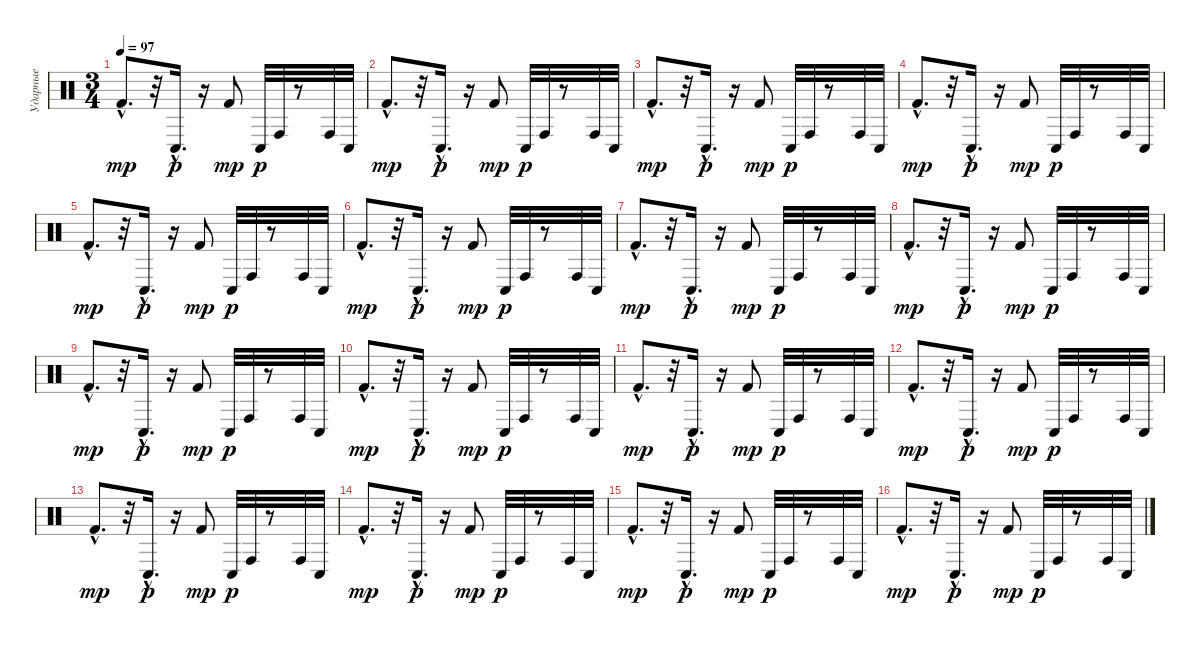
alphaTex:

\track ("Ударные" "Ударные") {instrument percussion}
\staff {score}
\articulation defaults
\ts (3 4)
\tempo 97
\clef neutral
\ks c "Kick (hit) 2"{hac}.8{d dy mp}
r.32 "Conga low (hit)"{hac}.16{d dy p} r.16 "Kick (hit) 2".8{dy mp} "Conga low (hit)".32{dy p} "Conga high (hit)".32 r.8 "Conga high (hit)".32 "Conga low (hit)".32 |
"Kick (hit) 2"{hac}.8{d dy mp} r.32 "Conga low (hit)"{hac}.16{d dy p} r.16 "Kick (hit) 2".8{dy mp} "Conga low (hit)".32{dy p} "Conga high (hit)".32 r.8 "Conga high (hit)".32 "Conga low (hit)".32 |
"Kick (hit) 2"{hac}.8{d dy mp} r.32 "Conga low (hit)"{hac}.16{d dy p} r.16 "Kick (hit) 2".8{dy mp} "Conga low (hit)".32{dy p} "Conga high (hit)".32 r.8 "Conga high (hit)".32 "Conga low (hit)".32 |
"Kick (hit) 2"{hac}.8{d dy mp} r.32 "Conga low (hit)"{hac}.16{d dy p} r.16 "Kick (hit) 2".8{dy mp} "Conga low (hit)".32{dy p} "Conga high (hit)".32 r.8 "Conga high (hit)".32 "Conga low (hit)".32 |
"Kick (hit) 2"{hac}.8{d dy mp} r.32 "Conga low (hit)"{hac}.16{d dy p} r.16 "Kick (hit) 2".8{dy mp} "Conga low (hit)".32{dy p} "Conga high (hit)".32 r.8 "Conga high (hit)".32 "Conga low (hit)".32 |
"Kick (hit) 2"{hac}.8{d dy mp} r.32 "Conga low (hit)"{hac}.16{d dy p} r.16 "Kick (hit) 2".8{dy mp} "Conga low (hit)".32{dy p} "Conga high (hit)".32 r.8 "Conga high (hit)".32 "Conga low (hit)".32 |
"Kick (hit) 2"{hac}.8{d dy mp} r.32 "Conga low (hit)"{hac}.16{d dy p} r.16 "Kick (hit) 2".8{dy mp} "Conga low (hit)".32{dy p} "Conga high (hit)".32 r.8 "Conga high (hit)".32 "Conga low (hit)".32 |
"Kick (hit) 2"{hac}.8{d dy mp} r.32 "Conga low (hit)"{hac}.16{d dy p} r.16 "Kick (hit) 2".8{dy mp} "Conga low (hit)".32{dy p} "Conga high (hit)".32 r.8 "Conga high (hit)".32 "Conga low (hit)".32 |
"Kick (hit) 2"{hac}.8{d dy mp} r.32 "Conga low (hit)"{hac}.16{d dy p} r.16 "Kick (hit) 2".8{dy mp} "Conga low (hit)".32{dy p} "Conga high (hit)".32 r.8 "Conga high (hit)".32 "Conga low (hit)".32 |
"Kick (hit) 2"{hac}.8{d dy mp} r.32 "Conga low (hit)"{hac}.16{d dy p} r.16 "Kick (hit) 2".8{dy mp} "Conga low (hit)".32{dy p} "Conga high (hit)".32 r.8 "Conga high (hit)".32 "Conga low (hit)".32 |
"Kick (hit) 2"{hac}.8{d dy mp} r.32 "Conga low (hit)"{hac}.16{d dy p} r.16 "Kick (hit) 2".8{dy mp} "Conga low (hit)".32{dy p} "Conga high (hit)".32 r.8 "Conga high (hit)".32 "Conga low (hit)".32 |
"Kick (hit) 2"{hac}.8{d dy mp} r.32 "Conga low (hit)"{hac}.16{d dy p} r.16 "Kick (hit) 2".8{dy mp} "Conga low (hit)".32{dy p} "Conga high (hit)".32 r.8 "Conga high (hit)".32 "Conga low (hit)".32 |
"Kick (hit) 2"{hac}.8{d dy mp} r.32 "Conga low (hit)"{hac}.16{d dy p} r.16 "Kick (hit) 2".8{dy mp} "Conga low (hit)".32{dy p} "Conga high (hit)".32 r.8 "Conga high (hit)".32 "Conga low (hit)".32 |
"Kick (hit) 2"{hac}.8{d dy mp} r.32 "Conga low (hit)"{hac}.16{d dy p} r.16 "Kick (hit) 2".8{dy mp} "Conga low (hit)".32{dy p} "Conga high (hit)".32 r.8 "Conga high (hit)".32 "Conga low (hit)".32 |
"Kick (hit) 2"{hac}.8{d dy mp} r.32 "Conga low (hit)"{hac}.16{d dy p} r.16 "Kick (hit) 2".8{dy mp} "Conga low (hit)".32{dy p} "Conga high (hit)".32 r.8 "Conga high (hit)".32 "Conga low (hit)".32 |
"Kick (hit) 2"{hac}.8{d dy mp} r.32 "Conga low (hit)"{hac}.16{d dy p} r.16 "Kick (hit) 2".8{dy mp} "Conga low (hit)".32{dy p} "Conga high (hit)".32 r.8 "Conga high (hit)".32 "Conga low (hit)".32
